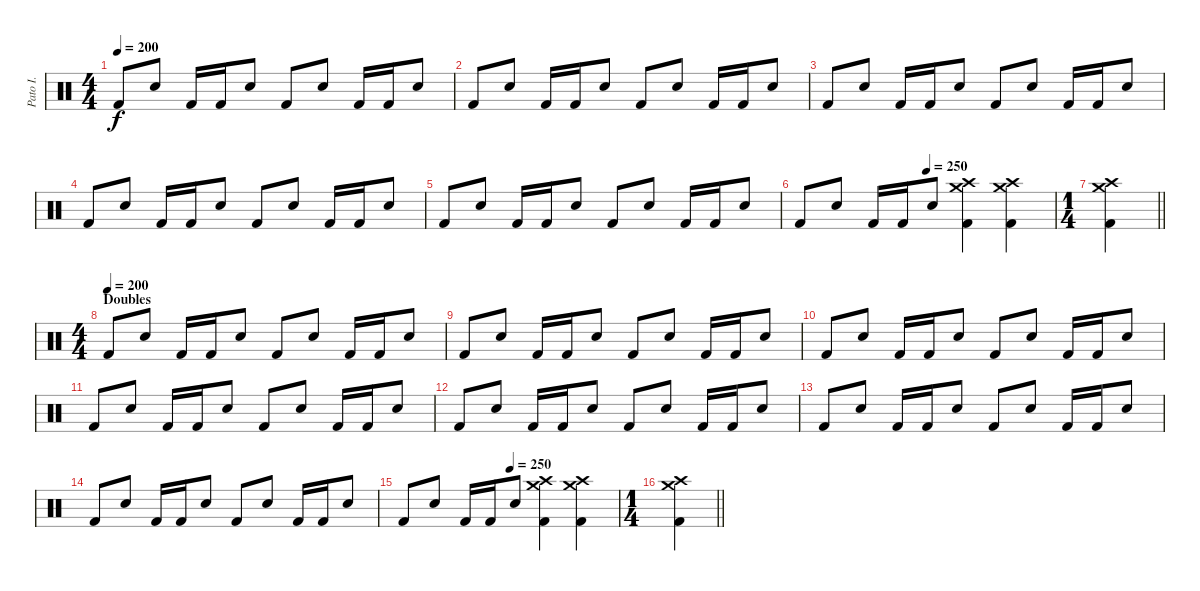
\track ("Pato I." "Pato I.") {instrument percussion}
\staff {score}
\articulation defaults
\ts (4 4)
\tempo 200
\clef neutral
\ks c "Kick (hit) 2".8{dy f} "Snare (hit) 2".8 "Kick (hit) 2".16 "Kick (hit) 2".16 "Snare (hit) 2".8 "Kick (hit) 2".8 "Snare (hit) 2".8 "Kick (hit) 2".16 "Kick (hit) 2".16 "Snare (hit) 2".8
|
"Kick (hit) 2".8 "Snare (hit) 2".8 "Kick (hit) 2".16 "Kick (hit) 2".16 "Snare (hit) 2".8 "Kick (hit) 2".8 "Snare (hit) 2".8 "Kick (hit) 2".16 "Kick (hit) 2".16 "Snare (hit) 2".8 |
"Kick (hit) 2".8 "Snare (hit) 2".8 "Kick (hit) 2".16 "Kick (hit) 2".16 "Snare (hit) 2".8 "Kick (hit) 2".8 "Snare (hit) 2".8 "Kick (hit) 2".16 "Kick (hit) 2".16 "Snare (hit) 2".8 |
"Kick (hit) 2".8 "Snare (hit) 2".8 "Kick (hit) 2".16 "Kick (hit) 2".16 "Snare (hit) 2".8 "Kick (hit) 2".8 "Snare (hit) 2".8 "Kick (hit) 2".16 "Kick (hit) 2".16 "Snare (hit) 2".8 |
"Kick (hit) 2".8 "Snare (hit) 2".8 "Kick (hit) 2".16 "Kick (hit) 2".16 "Snare (hit) 2".8 "Kick (hit) 2".8 "Snare (hit) 2".8 "Kick (hit) 2".16 "Kick (hit) 2".16 "Snare (hit) 2".8 |
\tempo (250 0.5)
"Kick (hit) 2".8 "Snare (hit) 2".8 "Kick (hit) 2".16 "Kick (hit) 2".16 "Snare (hit) 2".8 ("Crash high (hit)" "Crash medium (hit)" "Kick (hit) 2").4 ("Crash high (hit)" "Crash medium (hit)" "Kick (hit) 2").4 |
\ts (1 4)
\barLineRight lightlight
("Crash high (hit)" "Crash medium (hit)" "Kick (hit) 2").4 |
\ts (4 4)
\section ("" "Doubles")
\tempo (200)
"Kick (hit) 2".8 "Snare (hit) 2".8 "Kick (hit) 2".16 "Kick (hit) 2".16 "Snare (hit) 2".8 "Kick (hit) 2".8 "Snare (hit) 2".8 "Kick (hit) 2".16 "Kick (hit) 2".16 "Snare (hit) 2".8 |
"Kick (hit) 2".8 "Snare (hit) 2".8 "Kick (hit) 2".16 "Kick (hit) 2".16 "Snare (hit) 2".8 "Kick (hit) 2".8 "Snare (hit) 2".8 "Kick (hit) 2".16 "Kick (hit) 2".16 "Snare (hit) 2".8 |
"Kick (hit) 2".8 "Snare (hit) 2".8 "Kick (hit) 2".16 "Kick (hit) 2".16 "Snare (hit) 2".8 "Kick (hit) 2".8 "Snare (hit) 2".8 "Kick (hit) 2".16 "Kick (hit) 2".16 "Snare (hit) 2".8 |
"Kick (hit) 2".8 "Snare (hit) 2".8 "Kick (hit) 2".16 "Kick (hit) 2".16 "Snare (hit) 2".8 "Kick (hit) 2".8 "Snare (hit) 2".8 "Kick (hit) 2".16 "Kick (hit) 2".16 "Snare (hit) 2".8 |
"Kick (hit) 2".8 "Snare (hit) 2".8 "Kick (hit) 2".16 "Kick (hit) 2".16 "Snare (hit) 2".8 "Kick (hit) 2".8 "Snare (hit) 2".8 "Kick (hit) 2".16 "Kick (hit) 2".16 "Snare (hit) 2".8 |
"Kick (hit) 2".8 "Snare (hit) 2".8 "Kick (hit) 2".16 "Kick (hit) 2".16 "Snare (hit) 2".8 "Kick (hit) 2".8 "Snare (hit) 2".8 "Kick (hit) 2".16 "Kick (hit) 2".16 "Snare (hit) 2".8 |
"Kick (hit) 2".8 "Snare (hit) 2".8 "Kick (hit) 2".16 "Kick (hit) 2".16 "Snare (hit) 2".8 "Kick (hit) 2".8 "Snare (hit) 2".8 "Kick (hit) 2".16 "Kick (hit) 2".16 "Snare (hit) 2".8 |
\tempo (250 0.5)
"Kick (hit) 2".8 "Snare (hit) 2".8 "Kick (hit) 2".16 "Kick (hit) 2".16 "Snare (hit) 2".8 ("Crash high (hit)" "Crash medium (hit)" "Kick (hit) 2").4 ("Crash high (hit)" "Crash medium (hit)" "Kick (hit) 2").4 |
\ts (1 4)
\barLineRight lightlight
("Crash high (hit)" "Crash medium (hit)" "Kick (hit) 2").4
